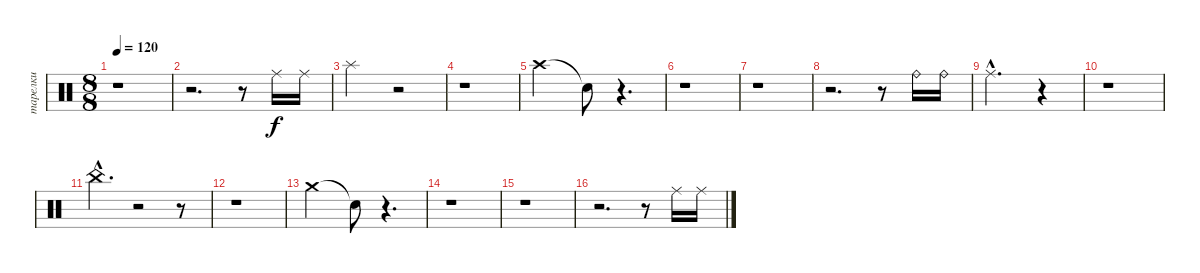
\track ("тарелки" "тарелки") {instrument percussion}
\staff {score}
\articulation defaults
\ts (8 8)
\tempo 120
\clef neutral
\ks c
r.1{dy f} |
r.2{d} r.8 "Ride (middle)".16 "Ride (middle)".16 |
"Splash (hit)".2 r.2 |
r.1 |
"Crash high (hit)".2 "Snare (hit)"{t}.8 r.4{d} |
r.1 |
r.1 |
r.2{d} r.8 "Ride (bell)".16 "Ride (bell)".16 |
"Ride (middle)"{hac}.2{d} r.4 |
r.1 |
"China (hit)"{hac}.4{d} r.2 r.8 |
r.1 |
"Crash medium (hit)".2 "Snare (hit)"{t}.8 r.4{d} |
r.1 |
r.1 |
r.2{d} r.8 "Ride (middle)".16 "Ride (middle)".16
